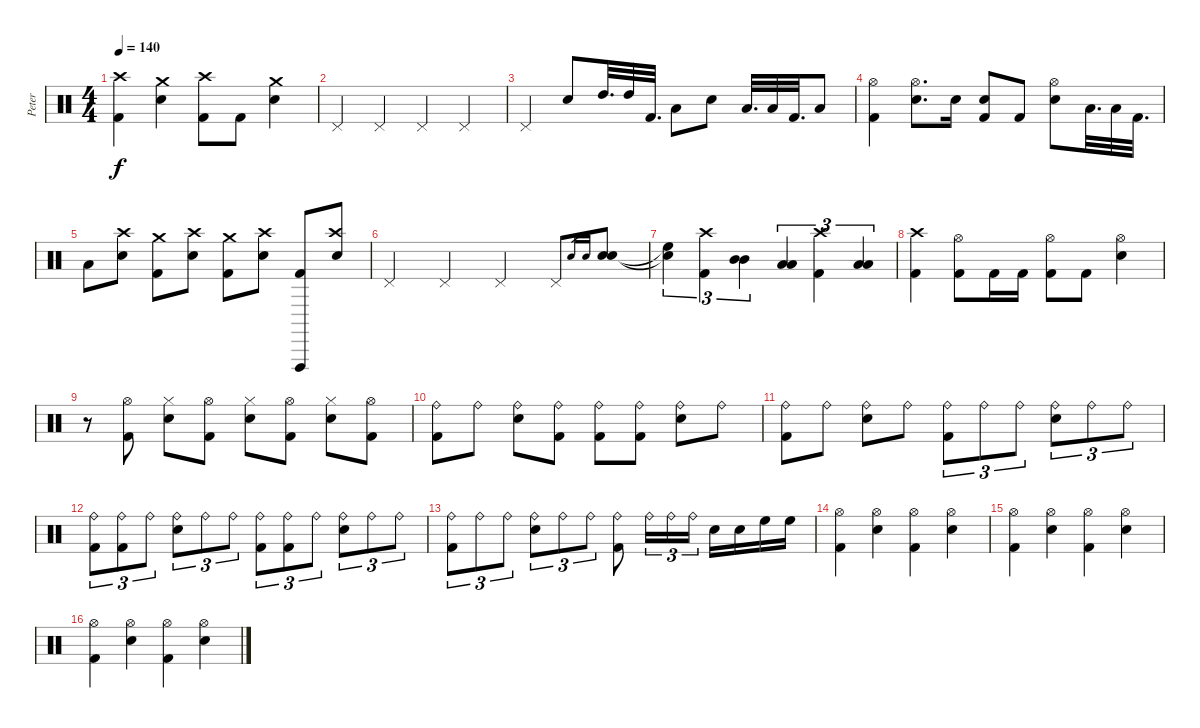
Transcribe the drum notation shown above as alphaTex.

\track ("Peter" "Peter") {instrument percussion}
\staff {score}
\articulation defaults
\ts (4 4)
\tempo 140
\clef neutral
\ks c
("Crash high (hit)" "Kick (hit) 2").4{dy f} ("Crash medium (hit)" "Electric Snare (hit)").4 ("Crash high (hit)" "Kick (hit) 2").8 "Kick (hit) 2".8 ("Crash medium (hit)" "Electric Snare (hit)").4 |
"Pedal Hi-Hat (hit)".4 "Pedal Hi-Hat (hit)".4 "Pedal Hi-Hat (hit)".4 "Pedal Hi-Hat (hit)".4 |
"Pedal Hi-Hat (hit)".4 "Electric Snare (hit)".8 "High Tom (hit)".32{d} "High Tom (hit)".32 "Kick (hit) 2".32{d} "Low Floor Tom (hit)".8 "Electric Snare (hit)".8 "Low Tom (hit)".32{d} "Low Tom (hit)".32 "Kick (hit) 2".32{d} "Low Floor Tom (hit)".8 |
("Hi-Hat (open)" "Kick (hit) 2").4 ("Hi-Hat (open)" "Electric Snare (hit)").8{d} "Snare (hit) 2".16 ("Snare (hit) 2" "Kick (hit) 2").8 "Kick (hit) 2".8 ("Hi-Hat (open)" "Electric Snare (hit)").8 "Low Tom (hit)".32{d} "Low Tom (hit)".32 "Kick (hit) 2".32{d} |
"Low Floor Tom (hit)".8 ("Crash high (hit)" "Electric Snare (hit)").8 ("Crash medium (hit)" "Kick (hit) 2").8 ("Crash high (hit)" "Electric Snare (hit)").8 ("Crash medium (hit)" "Kick (hit) 2").8 ("Crash high (hit)" "Electric Snare (hit)").8 ("Vibraslap (hit)" "Kick (hit) 2").8 ("Crash high (hit)" "Electric Snare (hit)").8 |
"Pedal Hi-Hat (hit)".4 "Pedal Hi-Hat (hit)".4 "Pedal Hi-Hat (hit)".4 "Pedal Hi-Hat (hit)".8 "Electric Snare (hit)".16{gr} "Electric Snare (hit)".16{gr} ("Electric Snare (hit)" "Electric Snare (hit)").8 |
("Snare (hit)"{t} "High Floor Tom (hit)"{t}).4{tu (3 2)} ("Crash high (hit)" "Kick (hit) 2").4{tu (3 2)} ("Mid Tom (hit)" "Mid Tom (hit)").4{tu (3 2)} ("Low Tom (hit)" "Low Tom (hit)").4{tu (3 2)} ("Crash high (hit)" "Kick (hit) 2").4{tu (3 2)} ("Low Floor Tom (hit)" "Low Floor Tom (hit)").4{tu (3 2)} |
("Crash high (hit)" "Kick (hit) 2").4 ("Hi-Hat (open)" "Kick (hit) 2").8 "Kick (hit) 2".16 "Kick (hit) 2".16 ("Hi-Hat (open)" "Kick (hit) 2").8 "Kick (hit) 2".8 ("Hi-Hat (open)" "Electric Snare (hit)").4 |
r.8 ("Hi-Hat (open)" "Kick (hit) 2").8 ("Hi-Hat (closed)" "Electric Snare (hit)").8 ("Hi-Hat (open)" "Kick (hit) 2").8 ("Hi-Hat (closed)" "Electric Snare (hit)").8 ("Hi-Hat (open)" "Kick (hit) 2").8 ("Hi-Hat (closed)" "Electric Snare (hit)").8 ("Hi-Hat (open)" "Kick (hit) 2").8 |
("Ride (bell)" "Kick (hit) 2").8 "Ride (bell)".8 ("Ride (bell)" "Electric Snare (hit)").8 ("Ride (bell)" "Kick (hit) 2").8 ("Ride (bell)" "Kick (hit) 2").8 ("Ride (bell)" "Kick (hit) 2").8 ("Ride (bell)" "Electric Snare (hit)").8 "Ride (bell)".8 |
("Ride (bell)" "Kick (hit) 2").8 "Ride (bell)".8 ("Ride (bell)" "Electric Snare (hit)").8 "Ride (bell)".8 ("Ride (bell)" "Kick (hit) 2").8{tu (3 2)} "Ride (bell)".8{tu (3 2)} "Ride (bell)".8{tu (3 2)} ("Ride (bell)" "Electric Snare (hit)").8{tu (3 2)} "Ride (bell)".8{tu (3 2)} "Ride (bell)".8{tu (3 2)} |
("Ride (bell)" "Kick (hit) 2").8{tu (3 2)} ("Ride (bell)" "Kick (hit) 2").8{tu (3 2)} "Ride (bell)".8{tu (3 2)} ("Ride (bell)" "Electric Snare (hit)").8{tu (3 2)} "Ride (bell)".8{tu (3 2)} "Ride (bell)".8{tu (3 2)} ("Ride (bell)" "Kick (hit) 2").8{tu (3 2)} ("Ride (bell)" "Kick (hit) 2").8{tu (3 2)} "Ride (bell)".8{tu (3 2)} ("Ride (bell)" "Electric Snare (hit)").8{tu (3 2)} "Ride (bell)".8{tu (3 2)} "Ride (bell)".8{tu (3 2)} |
("Ride (bell)" "Kick (hit) 2").8{tu (3 2)} "Ride (bell)".8{tu (3 2)} "Ride (bell)".8{tu (3 2)} ("Ride (bell)" "Electric Snare (hit)").8{tu (3 2)} "Ride (bell)".8{tu (3 2)} "Ride (bell)".8{tu (3 2)} ("Ride (bell)" "Kick (hit) 2").8 "Ride (bell)".16{tu (3 2)} "Ride (bell)".16{tu (3 2)} "Ride (bell)".16{tu (3 2)} "Electric Snare (hit)".16 "Electric Snare (hit)".16 "High Floor Tom (hit)".16 "High Floor Tom (hit)".16 |
("Hi-Hat (open)" "Kick (hit) 2").4 ("Hi-Hat (open)" "Electric Snare (hit)").4 ("Hi-Hat (open)" "Kick (hit) 2").4 ("Hi-Hat (open)" "Electric Snare (hit)").4 |
("Hi-Hat (open)" "Kick (hit) 2").4 ("Hi-Hat (open)" "Electric Snare (hit)").4 ("Hi-Hat (open)" "Kick (hit) 2").4 ("Hi-Hat (open)" "Electric Snare (hit)").4 |
("Hi-Hat (open)" "Kick (hit) 2").4 ("Hi-Hat (open)" "Electric Snare (hit)").4 ("Hi-Hat (open)" "Kick (hit) 2").4 ("Hi-Hat (open)" "Electric Snare (hit)").4
